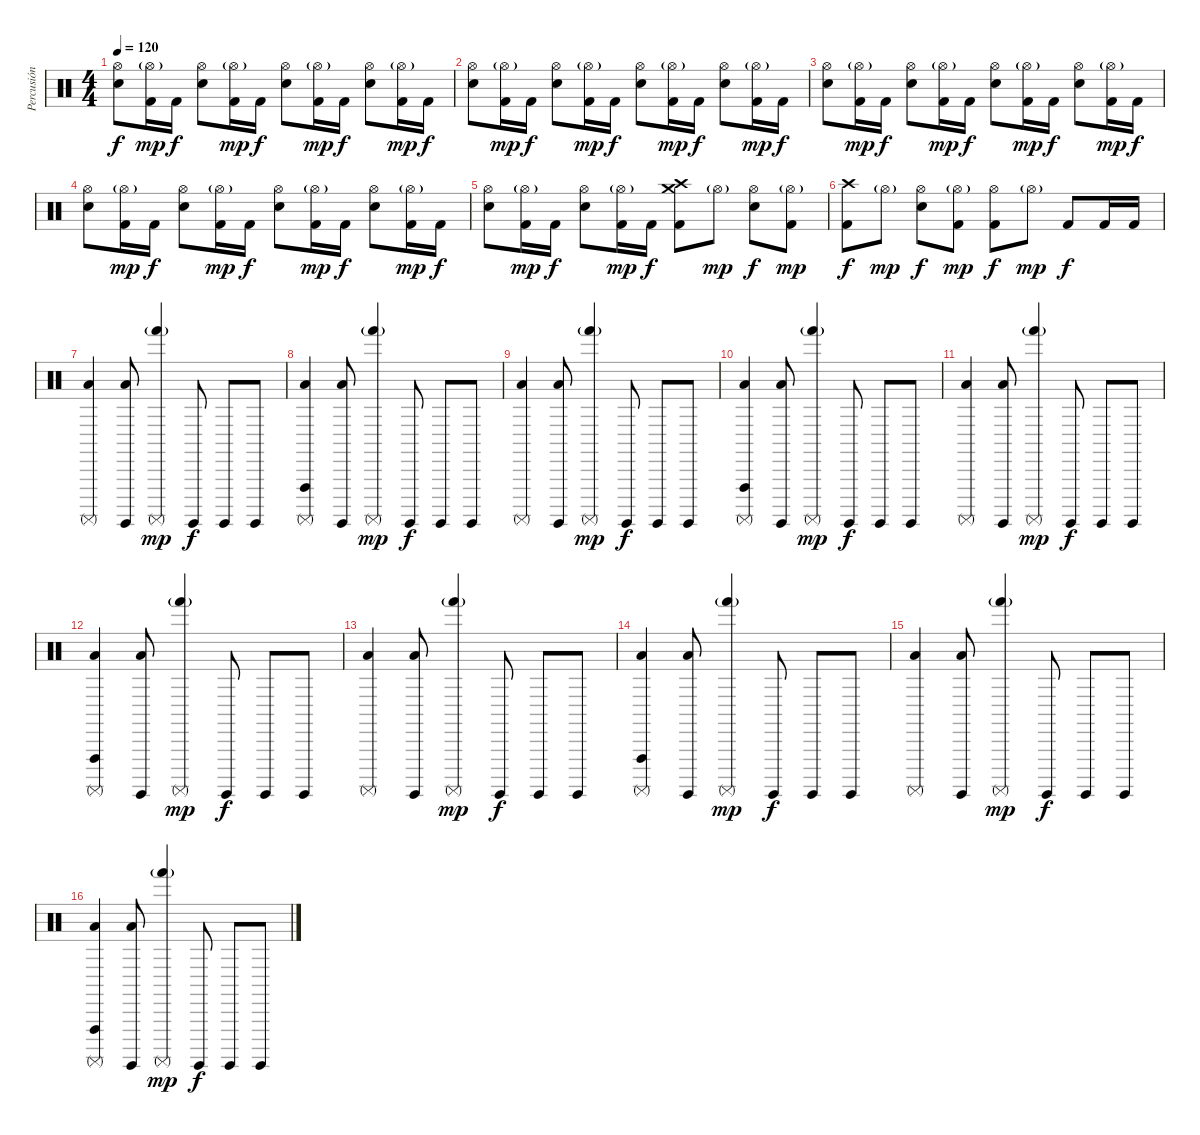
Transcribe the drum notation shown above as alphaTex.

\track ("Percusión" "Percusión") {instrument percussion}
\staff {score}
\articulation defaults
\ts (4 4)
\tempo 120
\clef neutral
\ks c
("Hi-Hat (open)" "Snare (hit) 2").8{dy f} ("Hi-Hat (open)"{g} "Kick (hit) 2").16{dy mp} "Kick (hit) 2".16{dy f} ("Hi-Hat (open)" "Snare (hit) 2").8 ("Hi-Hat (open)"{g} "Kick (hit) 2").16{dy mp} "Kick (hit) 2".16{dy f} ("Hi-Hat (open)" "Snare (hit) 2").8 ("Hi-Hat (open)"{g} "Kick (hit) 2").16{dy mp} "Kick (hit) 2".16{dy f} ("Hi-Hat (open)" "Snare (hit) 2").8 ("Hi-Hat (open)"{g} "Kick (hit) 2").16{dy mp} "Kick (hit) 2".16{dy f} |
("Hi-Hat (open)" "Snare (hit) 2").8 ("Hi-Hat (open)"{g} "Kick (hit) 2").16{dy mp} "Kick (hit) 2".16{dy f} ("Hi-Hat (open)" "Snare (hit) 2").8 ("Hi-Hat (open)"{g} "Kick (hit) 2").16{dy mp} "Kick (hit) 2".16{dy f} ("Hi-Hat (open)" "Snare (hit) 2").8 ("Hi-Hat (open)"{g} "Kick (hit) 2").16{dy mp} "Kick (hit) 2".16{dy f} ("Hi-Hat (open)" "Snare (hit) 2").8 ("Hi-Hat (open)"{g} "Kick (hit) 2").16{dy mp} "Kick (hit) 2".16{dy f} |
("Hi-Hat (open)" "Snare (hit) 2").8 ("Hi-Hat (open)"{g} "Kick (hit) 2").16{dy mp} "Kick (hit) 2".16{dy f} ("Hi-Hat (open)" "Snare (hit) 2").8 ("Hi-Hat (open)"{g} "Kick (hit) 2").16{dy mp} "Kick (hit) 2".16{dy f} ("Hi-Hat (open)" "Snare (hit) 2").8 ("Hi-Hat (open)"{g} "Kick (hit) 2").16{dy mp} "Kick (hit) 2".16{dy f} ("Hi-Hat (open)" "Snare (hit) 2").8 ("Hi-Hat (open)"{g} "Kick (hit) 2").16{dy mp} "Kick (hit) 2".16{dy f} |
("Hi-Hat (open)" "Snare (hit) 2").8 ("Hi-Hat (open)"{g} "Kick (hit) 2").16{dy mp} "Kick (hit) 2".16{dy f} ("Hi-Hat (open)" "Snare (hit) 2").8 ("Hi-Hat (open)"{g} "Kick (hit) 2").16{dy mp} "Kick (hit) 2".16{dy f} ("Hi-Hat (open)" "Snare (hit) 2").8 ("Hi-Hat (open)"{g} "Kick (hit) 2").16{dy mp} "Kick (hit) 2".16{dy f} ("Hi-Hat (open)" "Snare (hit) 2").8 ("Hi-Hat (open)"{g} "Kick (hit) 2").16{dy mp} "Kick (hit) 2".16{dy f} |
("Hi-Hat (open)" "Snare (hit) 2").8 ("Hi-Hat (open)"{g} "Kick (hit) 2").16{dy mp} "Kick (hit) 2".16{dy f} ("Hi-Hat (open)" "Snare (hit) 2").8 ("Hi-Hat (open)"{g} "Kick (hit) 2").16{dy mp} "Kick (hit) 2".16{dy f} ("Crash high (hit)" "Crash medium (hit)" "Kick (hit) 2").8 "Hi-Hat (open)"{g}.8{dy mp} ("Hi-Hat (open)" "Snare (hit) 2").8{dy f} ("Hi-Hat (open)"{g} "Kick (hit) 2").8{dy mp} |
("Crash high (hit)" "Kick (hit) 2").8{dy f} "Hi-Hat (open)"{g}.8{dy mp} ("Hi-Hat (open)" "Snare (hit) 2").8{dy f} ("Hi-Hat (open)"{g} "Kick (hit) 2").8{dy mp} ("Hi-Hat (open)" "Kick (hit) 2").8{dy f} "Hi-Hat (open)"{g}.8{dy mp} "Kick (hit) 2".8{dy f} "Kick (hit) 2".16 "Kick (hit) 2".16 |
("Low Floor Tom (hit)" "Surdo (mute)").4 ("Low Floor Tom (hit)" "Surdo (hit)").8 ("Surdo (mute)" "Hand (hit)"{g}).4{dy mp} "Surdo (hit)".8{dy f} "Surdo (hit)".8 "Surdo (hit)".8 |
("Vibraslap (hit)" "Low Floor Tom (hit)" "Surdo (mute)").4 ("Low Floor Tom (hit)" "Surdo (hit)").8 ("Surdo (mute)" "Hand (hit)"{g}).4{dy mp} "Surdo (hit)".8{dy f} "Surdo (hit)".8 "Surdo (hit)".8 |
("Low Floor Tom (hit)" "Surdo (mute)").4 ("Low Floor Tom (hit)" "Surdo (hit)").8 ("Surdo (mute)" "Hand (hit)"{g}).4{dy mp} "Surdo (hit)".8{dy f} "Surdo (hit)".8 "Surdo (hit)".8 |
("Vibraslap (hit)" "Low Floor Tom (hit)" "Surdo (mute)").4 ("Low Floor Tom (hit)" "Surdo (hit)").8 ("Surdo (mute)" "Hand (hit)"{g}).4{dy mp} "Surdo (hit)".8{dy f} "Surdo (hit)".8 "Surdo (hit)".8 |
("Low Floor Tom (hit)" "Surdo (mute)").4 ("Low Floor Tom (hit)" "Surdo (hit)").8 ("Surdo (mute)" "Hand (hit)"{g}).4{dy mp} "Surdo (hit)".8{dy f} "Surdo (hit)".8 "Surdo (hit)".8 |
("Vibraslap (hit)" "Low Floor Tom (hit)" "Surdo (mute)").4 ("Low Floor Tom (hit)" "Surdo (hit)").8 ("Surdo (mute)" "Hand (hit)"{g}).4{dy mp} "Surdo (hit)".8{dy f} "Surdo (hit)".8 "Surdo (hit)".8 |
("Low Floor Tom (hit)" "Surdo (mute)").4 ("Low Floor Tom (hit)" "Surdo (hit)").8 ("Surdo (mute)" "Hand (hit)"{g}).4{dy mp} "Surdo (hit)".8{dy f} "Surdo (hit)".8 "Surdo (hit)".8 |
("Vibraslap (hit)" "Low Floor Tom (hit)" "Surdo (mute)").4 ("Low Floor Tom (hit)" "Surdo (hit)").8 ("Surdo (mute)" "Hand (hit)"{g}).4{dy mp} "Surdo (hit)".8{dy f} "Surdo (hit)".8 "Surdo (hit)".8 |
("Low Floor Tom (hit)" "Surdo (mute)").4 ("Low Floor Tom (hit)" "Surdo (hit)").8 ("Surdo (mute)" "Hand (hit)"{g}).4{dy mp} "Surdo (hit)".8{dy f} "Surdo (hit)".8 "Surdo (hit)".8 |
("Vibraslap (hit)" "Low Floor Tom (hit)" "Surdo (mute)").4 ("Low Floor Tom (hit)" "Surdo (hit)").8 ("Surdo (mute)" "Hand (hit)"{g}).4{dy mp} "Surdo (hit)".8{dy f} "Surdo (hit)".8 "Surdo (hit)".8
